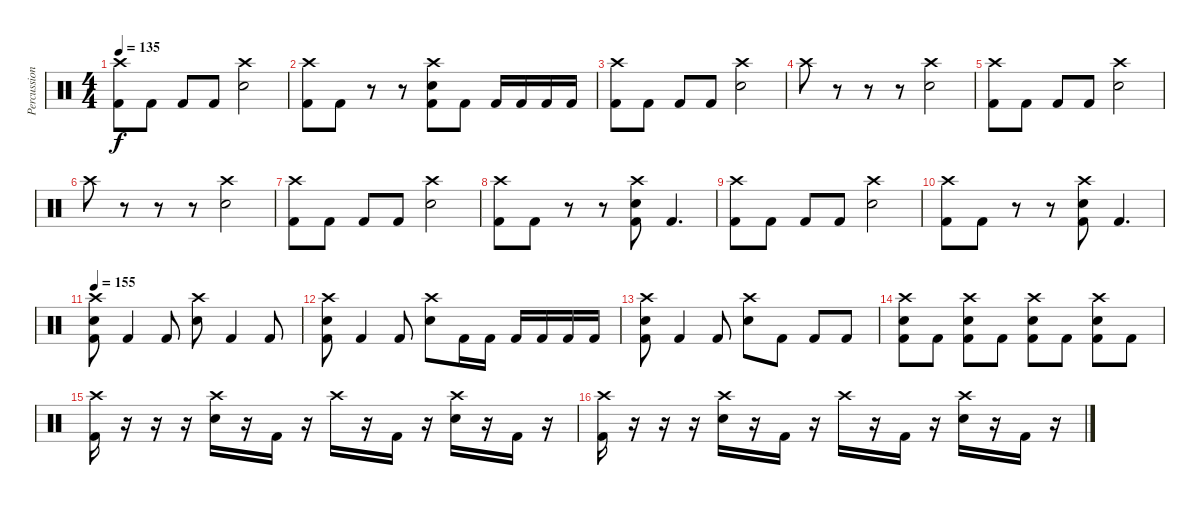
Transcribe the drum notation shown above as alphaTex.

\track ("Percussion" "Percussion") {instrument percussion}
\staff {score}
\articulation defaults
\ts (4 4)
\tempo 135
\clef neutral
\ks c
("Crash high (hit)" "Kick (hit) 2").8{dy f} "Kick (hit) 2".8 "Kick (hit) 2".8 "Kick (hit) 2".8 ("Crash high (hit)" "Snare (hit) 2").2 |
("Crash high (hit)" "Kick (hit) 2").8 "Kick (hit) 2".8 r.8 r.8 ("Crash high (hit)" "Snare (hit) 2" "Kick (hit) 2").8 "Kick (hit) 2".8 "Kick (hit) 2".16 "Kick (hit) 2".16 "Kick (hit) 2".16 "Kick (hit) 2".16 |
("Crash high (hit)" "Kick (hit) 2").8 "Kick (hit) 2".8 "Kick (hit) 2".8 "Kick (hit) 2".8 ("Crash high (hit)" "Snare (hit) 2").2 |
"Crash high (hit)".8 r.8 r.8 r.8 ("Crash high (hit)" "Snare (hit) 2").2 |
("Crash high (hit)" "Kick (hit) 2").8 "Kick (hit) 2".8 "Kick (hit) 2".8 "Kick (hit) 2".8 ("Crash high (hit)" "Snare (hit) 2").2 |
"Crash high (hit)".8 r.8 r.8 r.8 ("Crash high (hit)" "Snare (hit) 2").2 |
("Crash high (hit)" "Kick (hit) 2").8 "Kick (hit) 2".8 "Kick (hit) 2".8 "Kick (hit) 2".8 ("Crash high (hit)" "Snare (hit) 2").2 |
("Crash high (hit)" "Kick (hit) 2").8 "Kick (hit) 2".8 r.8 r.8 ("Crash high (hit)" "Snare (hit) 2" "Kick (hit) 2").8 "Kick (hit) 2".4{d} |
("Crash high (hit)" "Kick (hit) 2").8 "Kick (hit) 2".8 "Kick (hit) 2".8 "Kick (hit) 2".8 ("Crash high (hit)" "Snare (hit) 2").2 |
("Crash high (hit)" "Kick (hit) 2").8 "Kick (hit) 2".8 r.8 r.8 ("Crash high (hit)" "Snare (hit) 2" "Kick (hit) 2").8 "Kick (hit) 2".4{d} |
\tempo 155
("Crash high (hit)" "Snare (hit) 2" "Kick (hit) 2").8 "Kick (hit) 2".4 "Kick (hit) 2".8 ("Crash high (hit)" "Snare (hit) 2").8 "Kick (hit) 2".4 "Kick (hit) 2".8 |
("Crash high (hit)" "Snare (hit) 2" "Kick (hit) 2").8 "Kick (hit) 2".4 "Kick (hit) 2".8 ("Crash high (hit)" "Snare (hit) 2").8 "Kick (hit) 2".16 "Kick (hit) 2".16 "Kick (hit) 2".16 "Kick (hit) 2".16 "Kick (hit) 2".16 "Kick (hit) 2".16 |
("Crash high (hit)" "Snare (hit) 2" "Kick (hit) 2").8 "Kick (hit) 2".4 "Kick (hit) 2".8 ("Crash high (hit)" "Snare (hit) 2").8 "Kick (hit) 2".8 "Kick (hit) 2".8 "Kick (hit) 2".8 |
("Crash high (hit)" "Snare (hit) 2" "Kick (hit) 2").8 "Kick (hit) 2".8 ("Crash high (hit)" "Snare (hit) 2" "Kick (hit) 2").8 "Kick (hit) 2".8 ("Crash high (hit)" "Snare (hit) 2" "Kick (hit) 2").8 "Kick (hit) 2".8 ("Crash high (hit)" "Snare (hit) 2" "Kick (hit) 2").8 "Kick (hit) 2".8 |
("Crash high (hit)" "Kick (hit) 2").16 r.16 r.16 r.16 ("Crash high (hit)" "Snare (hit) 2").16 r.16 "Kick (hit) 2".16 r.16 "Crash high (hit)".16 r.16 "Kick (hit) 2".16 r.16 ("Crash high (hit)" "Snare (hit) 2").16 r.16 "Kick (hit) 2".16 r.16 |
("Crash high (hit)" "Kick (hit) 2").16 r.16 r.16 r.16 ("Crash high (hit)" "Snare (hit) 2").16 r.16 "Kick (hit) 2".16 r.16 "Crash high (hit)".16 r.16 "Kick (hit) 2".16 r.16 ("Crash high (hit)" "Snare (hit) 2").16 r.16 "Kick (hit) 2".16 r.16
